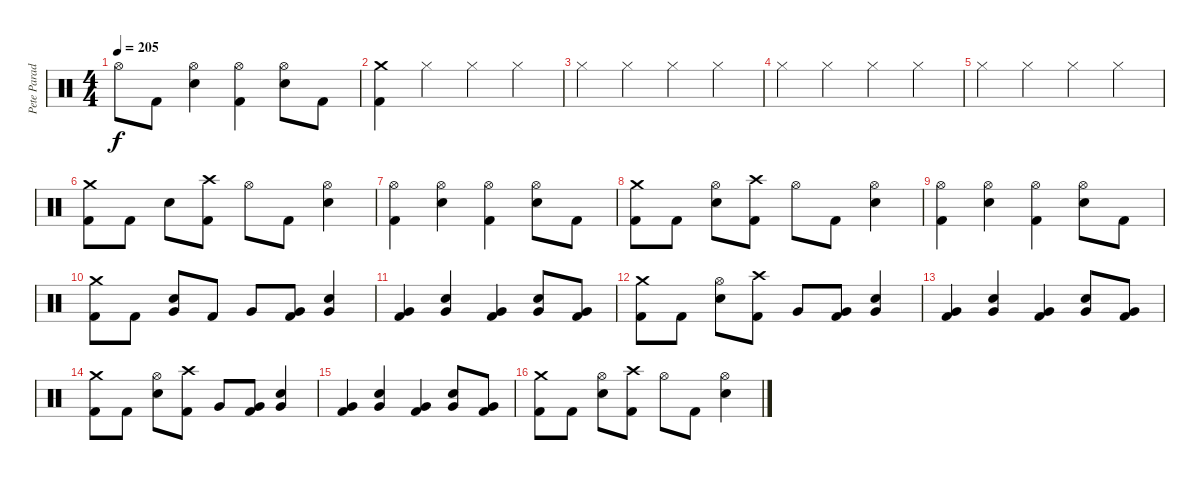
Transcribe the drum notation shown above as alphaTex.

\track ("Pete Parada - Drums" "Pete Parad") {instrument percussion}
\staff {score}
\articulation defaults
\ts (4 4)
\tempo 205
\clef neutral
\ks c "Hi-Hat (open)".8{dy f} "Kick (hit) 2".8
("Hi-Hat (open)" "Electric Snare (hit)").4 ("Hi-Hat (open)" "Kick (hit) 2").4 ("Hi-Hat (open)" "Electric Snare (hit)").8 "Kick (hit) 2".8 |
("Crash medium (hit)" "Kick (hit) 2").4 "Hi-Hat (closed)".4 "Hi-Hat (closed)".4 "Hi-Hat (closed)".4 |
"Hi-Hat (closed)".4 "Hi-Hat (closed)".4 "Hi-Hat (closed)".4 "Hi-Hat (closed)".4 |
"Hi-Hat (closed)".4 "Hi-Hat (closed)".4 "Hi-Hat (closed)".4 "Hi-Hat (closed)".4 |
"Hi-Hat (closed)".4 "Hi-Hat (closed)".4 "Hi-Hat (closed)".4 "Hi-Hat (closed)".4 |
("Crash medium (hit)" "Kick (hit) 2").8 "Kick (hit) 2".8 "Electric Snare (hit)".8 ("Crash high (hit)" "Kick (hit) 2").8 "Hi-Hat (open)".8 "Kick (hit) 2".8 ("Hi-Hat (open)" "Electric Snare (hit)").4 |
("Hi-Hat (open)" "Kick (hit) 2").4 ("Hi-Hat (open)" "Electric Snare (hit)").4 ("Hi-Hat (open)" "Kick (hit) 2").4 ("Hi-Hat (open)" "Electric Snare (hit)").8 "Kick (hit) 2".8 |
("Crash medium (hit)" "Kick (hit) 2").8 "Kick (hit) 2".8 ("Hi-Hat (open)" "Electric Snare (hit)").8 ("Crash high (hit)" "Kick (hit) 2").8 "Hi-Hat (open)".8 "Kick (hit) 2".8 ("Hi-Hat (open)" "Electric Snare (hit)").4 |
("Hi-Hat (open)" "Kick (hit) 2").4 ("Hi-Hat (open)" "Electric Snare (hit)").4 ("Hi-Hat (open)" "Kick (hit) 2").4 ("Hi-Hat (open)" "Electric Snare (hit)").8 "Kick (hit) 2".8 |
("Crash medium (hit)" "Kick (hit) 2").8 "Kick (hit) 2".8 ("Very Low Tom (hit)" "Electric Snare (hit)").8 "Kick (hit) 2".8 "Very Low Tom (hit)".8 ("Very Low Tom (hit)" "Kick (hit) 2").8 ("Very Low Tom (hit)" "Electric Snare (hit)").4 |
("Very Low Tom (hit)" "Kick (hit) 2").4 ("Very Low Tom (hit)" "Electric Snare (hit)").4 ("Very Low Tom (hit)" "Kick (hit) 2").4 ("Very Low Tom (hit)" "Electric Snare (hit)").8 ("Very Low Tom (hit)" "Kick (hit) 2").8 |
("Crash medium (hit)" "Kick (hit) 2").8 "Kick (hit) 2".8 ("Hi-Hat (open)" "Electric Snare (hit)").8 ("Crash high (hit)" "Kick (hit) 2").8 "Very Low Tom (hit)".8 ("Very Low Tom (hit)" "Kick (hit) 2").8 ("Very Low Tom (hit)" "Electric Snare (hit)").4 |
("Very Low Tom (hit)" "Kick (hit) 2").4 ("Very Low Tom (hit)" "Electric Snare (hit)").4 ("Very Low Tom (hit)" "Kick (hit) 2").4 ("Very Low Tom (hit)" "Electric Snare (hit)").8 ("Very Low Tom (hit)" "Kick (hit) 2").8 |
("Crash medium (hit)" "Kick (hit) 2").8 "Kick (hit) 2".8 ("Hi-Hat (open)" "Electric Snare (hit)").8 ("Crash high (hit)" "Kick (hit) 2").8 "Very Low Tom (hit)".8 ("Very Low Tom (hit)" "Kick (hit) 2").8 ("Very Low Tom (hit)" "Electric Snare (hit)").4 |
("Very Low Tom (hit)" "Kick (hit) 2").4 ("Very Low Tom (hit)" "Electric Snare (hit)").4 ("Very Low Tom (hit)" "Kick (hit) 2").4 ("Very Low Tom (hit)" "Electric Snare (hit)").8 ("Very Low Tom (hit)" "Kick (hit) 2").8 |
("Crash medium (hit)" "Kick (hit) 2").8 "Kick (hit) 2".8 ("Hi-Hat (open)" "Electric Snare (hit)").8 ("Crash high (hit)" "Kick (hit) 2").8 "Hi-Hat (open)".8 "Kick (hit) 2".8 ("Hi-Hat (open)" "Electric Snare (hit)").4
